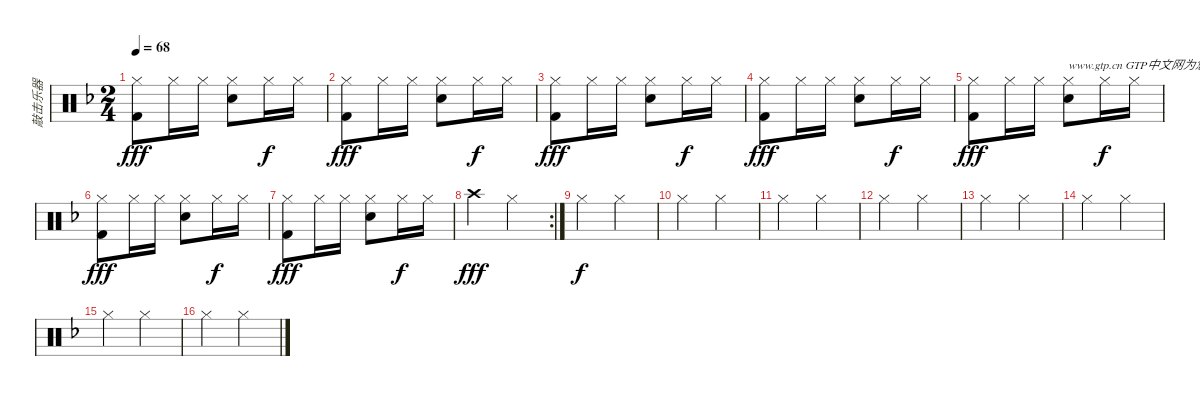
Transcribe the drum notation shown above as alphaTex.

\track ("敲击乐器" "敲击乐器") {instrument percussion}
\staff {score}
\articulation defaults
\ts (2 4)
\tempo 68
\clef neutral
\ks f
("Hi-Hat (closed)" "Kick (hit) 2").8{dy fff} "Hi-Hat (closed)".16 "Hi-Hat (closed)".16 ("Hi-Hat (closed)" "Electric Snare (hit)").8 "Hi-Hat (closed)".16{dy f} "Hi-Hat (closed)".16 |
("Hi-Hat (closed)" "Kick (hit) 2").8{dy fff} "Hi-Hat (closed)".16 "Hi-Hat (closed)".16 ("Hi-Hat (closed)" "Electric Snare (hit)").8 "Hi-Hat (closed)".16{dy f} "Hi-Hat (closed)".16 |
("Hi-Hat (closed)" "Kick (hit) 2").8{dy fff} "Hi-Hat (closed)".16 "Hi-Hat (closed)".16 ("Hi-Hat (closed)" "Electric Snare (hit)").8 "Hi-Hat (closed)".16{dy f} "Hi-Hat (closed)".16 |
("Hi-Hat (closed)" "Kick (hit) 2").8{dy fff} "Hi-Hat (closed)".16 "Hi-Hat (closed)".16 ("Hi-Hat (closed)" "Electric Snare (hit)").8 "Hi-Hat (closed)".16{dy f} "Hi-Hat (closed)".16 |
("Hi-Hat (closed)" "Kick (hit) 2").8{dy fff} "Hi-Hat (closed)".16 "Hi-Hat (closed)".16 ("Hi-Hat (closed)" "Electric Snare (hit)").8{txt "www.gtp.cn GTP中文网为您提供优秀的谱子"} "Hi-Hat (closed)".16{dy f} "Hi-Hat (closed)".16 |
("Hi-Hat (closed)" "Kick (hit) 2").8{dy fff} "Hi-Hat (closed)".16 "Hi-Hat (closed)".16 ("Hi-Hat (closed)" "Electric Snare (hit)").8 "Hi-Hat (closed)".16{dy f} "Hi-Hat (closed)".16 |
("Hi-Hat (closed)" "Kick (hit) 2").8{dy fff} "Hi-Hat (closed)".16 "Hi-Hat (closed)".16 ("Hi-Hat (closed)" "Electric Snare (hit)").8 "Hi-Hat (closed)".16{dy f} "Hi-Hat (closed)".16 |
\rc 2 "Crash high (hit)".4{dy fff} "Hi-Hat (closed)".4
|
"Hi-Hat (closed)".4{dy f} "Hi-Hat (closed)".4 |
"Hi-Hat (closed)".4 "Hi-Hat (closed)".4 |
"Hi-Hat (closed)".4 "Hi-Hat (closed)".4 |
"Hi-Hat (closed)".4 "Hi-Hat (closed)".4 |
"Hi-Hat (closed)".4 "Hi-Hat (closed)".4 |
"Hi-Hat (closed)".4 "Hi-Hat (closed)".4 |
"Hi-Hat (closed)".4 "Hi-Hat (closed)".4 |
"Hi-Hat (closed)".4 "Hi-Hat (closed)".4
